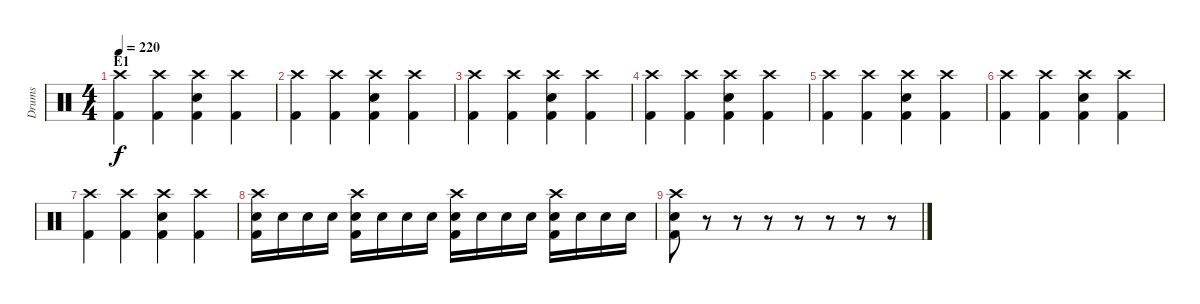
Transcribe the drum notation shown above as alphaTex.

\track ("Drums" "Drums") {instrument percussion}
\staff {score}
\articulation defaults
\ts (4 4)
\section ("" "E1")
\tempo 220
\clef neutral
\ks c
("Crash high (hit)" "Kick (hit) 2").4{dy f} ("Crash high (hit)" "Kick (hit) 2").4 ("Crash high (hit)" "Electric Snare (hit)" "Kick (hit) 2").4 ("Crash high (hit)" "Kick (hit) 2").4 |
("Crash high (hit)" "Kick (hit) 2").4 ("Crash high (hit)" "Kick (hit) 2").4 ("Crash high (hit)" "Electric Snare (hit)" "Kick (hit) 2").4 ("Crash high (hit)" "Kick (hit) 2").4 |
("Crash high (hit)" "Kick (hit) 2").4 ("Crash high (hit)" "Kick (hit) 2").4 ("Crash high (hit)" "Electric Snare (hit)" "Kick (hit) 2").4 ("Crash high (hit)" "Kick (hit) 2").4 |
("Crash high (hit)" "Kick (hit) 2").4 ("Crash high (hit)" "Kick (hit) 2").4 ("Crash high (hit)" "Electric Snare (hit)" "Kick (hit) 2").4 ("Crash high (hit)" "Kick (hit) 2").4 |
("Crash high (hit)" "Kick (hit) 2").4 ("Crash high (hit)" "Kick (hit) 2").4 ("Crash high (hit)" "Electric Snare (hit)" "Kick (hit) 2").4 ("Crash high (hit)" "Kick (hit) 2").4 |
("Crash high (hit)" "Kick (hit) 2").4 ("Crash high (hit)" "Kick (hit) 2").4 ("Crash high (hit)" "Electric Snare (hit)" "Kick (hit) 2").4 ("Crash high (hit)" "Kick (hit) 2").4 |
("Crash high (hit)" "Kick (hit) 2").4 ("Crash high (hit)" "Kick (hit) 2").4 ("Crash high (hit)" "Electric Snare (hit)" "Kick (hit) 2").4 ("Crash high (hit)" "Kick (hit) 2").4 |
("Crash high (hit)" "Electric Snare (hit)" "Kick (hit) 2").16 "Electric Snare (hit)".16 "Electric Snare (hit)".16 "Electric Snare (hit)".16 ("Crash high (hit)" "Electric Snare (hit)" "Kick (hit) 2").16 "Electric Snare (hit)".16 "Electric Snare (hit)".16 "Electric Snare (hit)".16 ("Crash high (hit)" "Electric Snare (hit)" "Kick (hit) 2").16 "Electric Snare (hit)".16 "Electric Snare (hit)".16 "Electric Snare (hit)".16 ("Crash high (hit)" "Electric Snare (hit)" "Kick (hit) 2").16 "Electric Snare (hit)".16 "Electric Snare (hit)".16 "Electric Snare (hit)".16 |
("Crash high (hit)" "Electric Snare (hit)" "Kick (hit) 2").8 r.8 r.8 r.8 r.8 r.8 r.8 r.8
